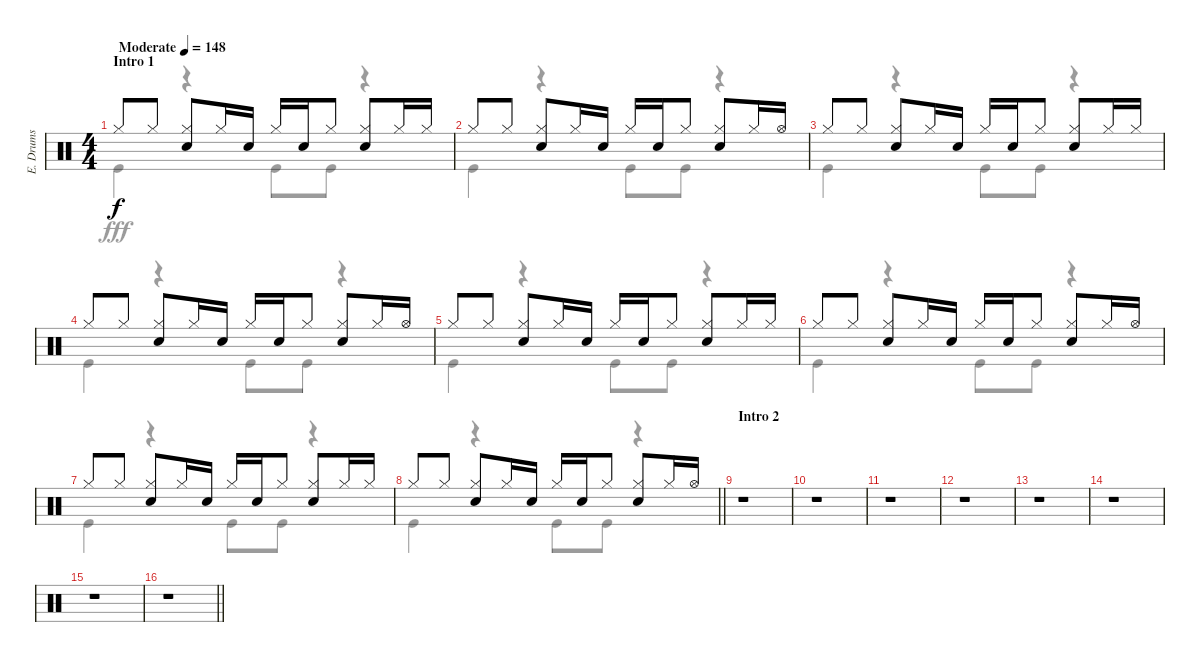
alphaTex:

\track ("E. Drums" "E. Drums") {instrument percussion}
\staff {score}
\articulation defaults
\voice
\ts (4 4)
\section ("" "Intro 1")
\tempo (148 "Moderate")
\clef neutral
\ks c "Hi-Hat (closed)".8{dy f} "Hi-Hat (closed)".8
("Hi-Hat (closed)" "Electric Snare (hit)").8 "Hi-Hat (closed)".16 "Electric Snare (hit)".16 "Hi-Hat (closed)".16 "Electric Snare (hit)".16 "Hi-Hat (closed)".8 ("Hi-Hat (closed)" "Electric Snare (hit)").8 "Hi-Hat (closed)".16 "Hi-Hat (closed)".16 |
"Hi-Hat (closed)".8 "Hi-Hat (closed)".8 ("Hi-Hat (closed)" "Electric Snare (hit)").8 "Hi-Hat (closed)".16 "Electric Snare (hit)".16 "Hi-Hat (closed)".16 "Electric Snare (hit)".16 "Hi-Hat (closed)".8 ("Hi-Hat (closed)" "Electric Snare (hit)").8 "Hi-Hat (closed)".16 "Hi-Hat (open)".16 |
"Hi-Hat (closed)".8 "Hi-Hat (closed)".8 ("Hi-Hat (closed)" "Electric Snare (hit)").8 "Hi-Hat (closed)".16 "Electric Snare (hit)".16 "Hi-Hat (closed)".16 "Electric Snare (hit)".16 "Hi-Hat (closed)".8 ("Hi-Hat (closed)" "Electric Snare (hit)").8 "Hi-Hat (closed)".16 "Hi-Hat (closed)".16 |
"Hi-Hat (closed)".8 "Hi-Hat (closed)".8 ("Hi-Hat (closed)" "Electric Snare (hit)").8 "Hi-Hat (closed)".16 "Electric Snare (hit)".16 "Hi-Hat (closed)".16 "Electric Snare (hit)".16 "Hi-Hat (closed)".8 ("Hi-Hat (closed)" "Electric Snare (hit)").8 "Hi-Hat (closed)".16 "Hi-Hat (open)".16 |
"Hi-Hat (closed)".8 "Hi-Hat (closed)".8 ("Hi-Hat (closed)" "Electric Snare (hit)").8 "Hi-Hat (closed)".16 "Electric Snare (hit)".16 "Hi-Hat (closed)".16 "Electric Snare (hit)".16 "Hi-Hat (closed)".8 ("Hi-Hat (closed)" "Electric Snare (hit)").8 "Hi-Hat (closed)".16 "Hi-Hat (closed)".16 |
"Hi-Hat (closed)".8 "Hi-Hat (closed)".8 ("Hi-Hat (closed)" "Electric Snare (hit)").8 "Hi-Hat (closed)".16 "Electric Snare (hit)".16 "Hi-Hat (closed)".16 "Electric Snare (hit)".16 "Hi-Hat (closed)".8 ("Hi-Hat (closed)" "Electric Snare (hit)").8 "Hi-Hat (closed)".16 "Hi-Hat (open)".16 |
"Hi-Hat (closed)".8 "Hi-Hat (closed)".8 ("Hi-Hat (closed)" "Electric Snare (hit)").8 "Hi-Hat (closed)".16 "Electric Snare (hit)".16 "Hi-Hat (closed)".16 "Electric Snare (hit)".16 "Hi-Hat (closed)".8 ("Hi-Hat (closed)" "Electric Snare (hit)").8 "Hi-Hat (closed)".16 "Hi-Hat (closed)".16 |
\barLineRight lightlight "Hi-Hat (closed)".8 "Hi-Hat (closed)".8
("Hi-Hat (closed)" "Electric Snare (hit)").8 "Hi-Hat (closed)".16 "Electric Snare (hit)".16 "Hi-Hat (closed)".16 "Electric Snare (hit)".16 "Hi-Hat (closed)".8 ("Hi-Hat (closed)" "Electric Snare (hit)").8 "Hi-Hat (closed)".16 "Hi-Hat (open)".16 |
\section ("" "Intro 2")
r.1 |
r.1 |
r.1 |
r.1 |
r.1 |
r.1 |
r.1 |
\barLineRight lightlight
r.1
\voice
\clef neutral
\ottava regular
\simile none
\ks c "Kick (hit)".4{dy fff}
r.4 "Kick (hit)".8 "Kick (hit)".8 r.4 |
"Kick (hit)".4 r.4 "Kick (hit)".8 "Kick (hit)".8 r.4 |
"Kick (hit)".4 r.4 "Kick (hit)".8 "Kick (hit)".8 r.4 |
"Kick (hit)".4 r.4 "Kick (hit)".8 "Kick (hit)".8 r.4 |
"Kick (hit)".4 r.4 "Kick (hit)".8 "Kick (hit)".8 r.4 |
"Kick (hit)".4 r.4 "Kick (hit)".8 "Kick (hit)".8 r.4 |
"Kick (hit)".4 r.4 "Kick (hit)".8 "Kick (hit)".8 r.4 |
\barLineRight lightlight "Kick (hit)".4
r.4 "Kick (hit)".8 "Kick (hit)".8 r.4 |
|
|
|
|
|
|
|
\barLineRight lightlight
